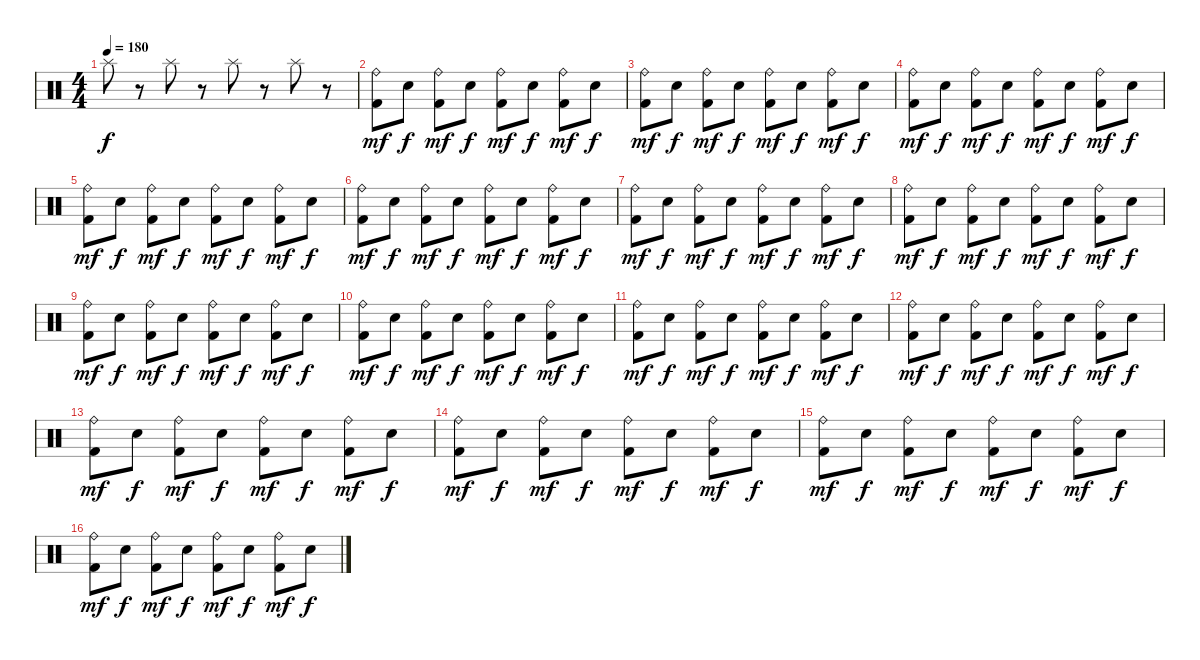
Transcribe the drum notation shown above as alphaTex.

\track "" {instrument percussion}
\staff {score}
\articulation defaults
\ts (4 4)
\tempo 180
\clef neutral
\ks c "Splash (hit)".8{dy f}
r.8 "Splash (hit)".8 r.8 "Splash (hit)".8 r.8 "Splash (hit)".8 r.8 |
("Ride (bell)" "Kick (hit) 2").8{dy mf} "Snare (hit) 2".8{dy f} ("Ride (bell)" "Kick (hit) 2").8{dy mf} "Snare (hit) 2".8{dy f} ("Ride (bell)" "Kick (hit) 2").8{dy mf} "Snare (hit) 2".8{dy f} ("Ride (bell)" "Kick (hit) 2").8{dy mf} "Snare (hit) 2".8{dy f} |
("Ride (bell)" "Kick (hit) 2").8{dy mf} "Snare (hit) 2".8{dy f} ("Ride (bell)" "Kick (hit) 2").8{dy mf} "Snare (hit) 2".8{dy f} ("Ride (bell)" "Kick (hit) 2").8{dy mf} "Snare (hit) 2".8{dy f} ("Ride (bell)" "Kick (hit) 2").8{dy mf} "Snare (hit) 2".8{dy f} |
("Ride (bell)" "Kick (hit) 2").8{dy mf} "Snare (hit) 2".8{dy f} ("Ride (bell)" "Kick (hit) 2").8{dy mf} "Snare (hit) 2".8{dy f} ("Ride (bell)" "Kick (hit) 2").8{dy mf} "Snare (hit) 2".8{dy f} ("Ride (bell)" "Kick (hit) 2").8{dy mf} "Snare (hit) 2".8{dy f} |
("Ride (bell)" "Kick (hit) 2").8{dy mf} "Snare (hit) 2".8{dy f} ("Ride (bell)" "Kick (hit) 2").8{dy mf} "Snare (hit) 2".8{dy f} ("Ride (bell)" "Kick (hit) 2").8{dy mf} "Snare (hit) 2".8{dy f} ("Ride (bell)" "Kick (hit) 2").8{dy mf} "Snare (hit) 2".8{dy f} |
("Ride (bell)" "Kick (hit) 2").8{dy mf} "Snare (hit) 2".8{dy f} ("Ride (bell)" "Kick (hit) 2").8{dy mf} "Snare (hit) 2".8{dy f} ("Ride (bell)" "Kick (hit) 2").8{dy mf} "Snare (hit) 2".8{dy f} ("Ride (bell)" "Kick (hit) 2").8{dy mf} "Snare (hit) 2".8{dy f} |
("Ride (bell)" "Kick (hit) 2").8{dy mf} "Snare (hit) 2".8{dy f} ("Ride (bell)" "Kick (hit) 2").8{dy mf} "Snare (hit) 2".8{dy f} ("Ride (bell)" "Kick (hit) 2").8{dy mf} "Snare (hit) 2".8{dy f} ("Ride (bell)" "Kick (hit) 2").8{dy mf} "Snare (hit) 2".8{dy f} |
("Ride (bell)" "Kick (hit) 2").8{dy mf} "Snare (hit) 2".8{dy f} ("Ride (bell)" "Kick (hit) 2").8{dy mf} "Snare (hit) 2".8{dy f} ("Ride (bell)" "Kick (hit) 2").8{dy mf} "Snare (hit) 2".8{dy f} ("Ride (bell)" "Kick (hit) 2").8{dy mf} "Snare (hit) 2".8{dy f} |
("Ride (bell)" "Kick (hit) 2").8{dy mf} "Snare (hit) 2".8{dy f} ("Ride (bell)" "Kick (hit) 2").8{dy mf} "Snare (hit) 2".8{dy f} ("Ride (bell)" "Kick (hit) 2").8{dy mf} "Snare (hit) 2".8{dy f} ("Ride (bell)" "Kick (hit) 2").8{dy mf} "Snare (hit) 2".8{dy f} |
("Ride (bell)" "Kick (hit) 2").8{dy mf} "Snare (hit) 2".8{dy f} ("Ride (bell)" "Kick (hit) 2").8{dy mf} "Snare (hit) 2".8{dy f} ("Ride (bell)" "Kick (hit) 2").8{dy mf} "Snare (hit) 2".8{dy f} ("Ride (bell)" "Kick (hit) 2").8{dy mf} "Snare (hit) 2".8{dy f} |
("Ride (bell)" "Kick (hit) 2").8{dy mf} "Snare (hit) 2".8{dy f} ("Ride (bell)" "Kick (hit) 2").8{dy mf} "Snare (hit) 2".8{dy f} ("Ride (bell)" "Kick (hit) 2").8{dy mf} "Snare (hit) 2".8{dy f} ("Ride (bell)" "Kick (hit) 2").8{dy mf} "Snare (hit) 2".8{dy f} |
("Ride (bell)" "Kick (hit) 2").8{dy mf} "Snare (hit) 2".8{dy f} ("Ride (bell)" "Kick (hit) 2").8{dy mf} "Snare (hit) 2".8{dy f} ("Ride (bell)" "Kick (hit) 2").8{dy mf} "Snare (hit) 2".8{dy f} ("Ride (bell)" "Kick (hit) 2").8{dy mf} "Snare (hit) 2".8{dy f} |
("Ride (bell)" "Kick (hit) 2").8{dy mf} "Snare (hit) 2".8{dy f} ("Ride (bell)" "Kick (hit) 2").8{dy mf} "Snare (hit) 2".8{dy f} ("Ride (bell)" "Kick (hit) 2").8{dy mf} "Snare (hit) 2".8{dy f} ("Ride (bell)" "Kick (hit) 2").8{dy mf} "Snare (hit) 2".8{dy f} |
("Ride (bell)" "Kick (hit) 2").8{dy mf} "Snare (hit) 2".8{dy f} ("Ride (bell)" "Kick (hit) 2").8{dy mf} "Snare (hit) 2".8{dy f} ("Ride (bell)" "Kick (hit) 2").8{dy mf} "Snare (hit) 2".8{dy f} ("Ride (bell)" "Kick (hit) 2").8{dy mf} "Snare (hit) 2".8{dy f} |
("Ride (bell)" "Kick (hit) 2").8{dy mf} "Snare (hit) 2".8{dy f} ("Ride (bell)" "Kick (hit) 2").8{dy mf} "Snare (hit) 2".8{dy f} ("Ride (bell)" "Kick (hit) 2").8{dy mf} "Snare (hit) 2".8{dy f} ("Ride (bell)" "Kick (hit) 2").8{dy mf} "Snare (hit) 2".8{dy f} |
("Ride (bell)" "Kick (hit) 2").8{dy mf} "Snare (hit) 2".8{dy f} ("Ride (bell)" "Kick (hit) 2").8{dy mf} "Snare (hit) 2".8{dy f} ("Ride (bell)" "Kick (hit) 2").8{dy mf} "Snare (hit) 2".8{dy f} ("Ride (bell)" "Kick (hit) 2").8{dy mf} "Snare (hit) 2".8{dy f}
